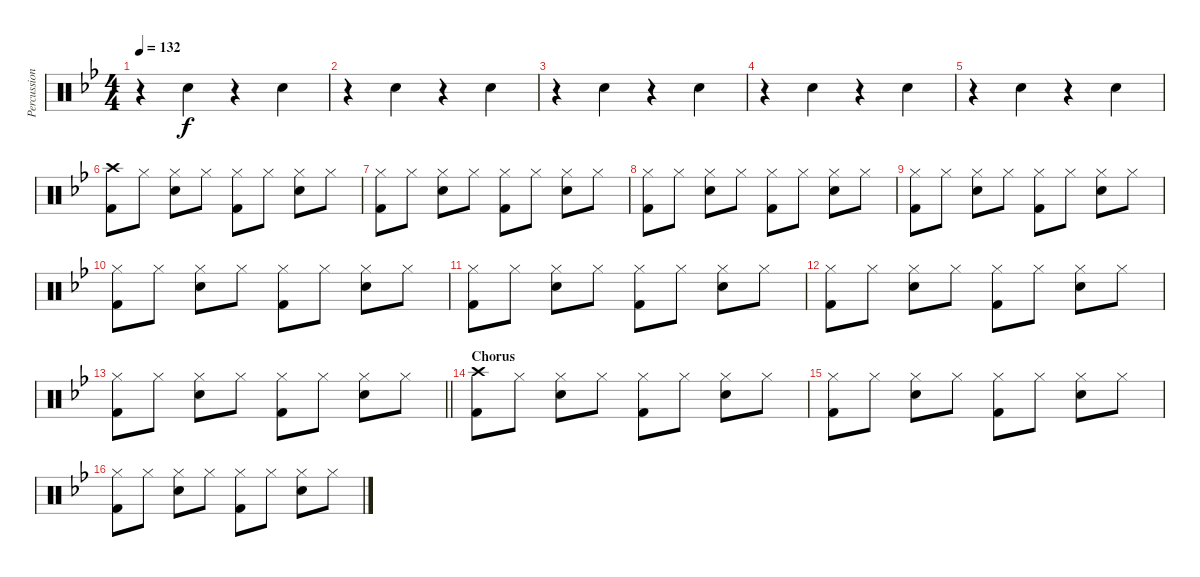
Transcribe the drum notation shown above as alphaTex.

\track ("Percussion" "Percussion") {instrument percussion}
\staff {score}
\articulation defaults
\ts (4 4)
\tempo 132
\clef neutral
\ks bb
r.4{dy f} "Snare (hit) 2".4 r.4 "Snare (hit) 2".4 |
r.4 "Snare (hit) 2".4 r.4 "Snare (hit) 2".4 |
r.4 "Snare (hit) 2".4 r.4 "Snare (hit) 2".4 |
r.4 "Snare (hit) 2".4 r.4 "Snare (hit) 2".4 |
r.4 "Snare (hit) 2".4 r.4 "Snare (hit) 2".4 |
("Crash high (hit)" "Kick (hit) 2").8 "Hi-Hat (closed)".8 ("Hi-Hat (closed)" "Snare (hit) 2").8 "Hi-Hat (closed)".8 ("Hi-Hat (closed)" "Kick (hit) 2").8 "Hi-Hat (closed)".8 ("Hi-Hat (closed)" "Snare (hit) 2").8 "Hi-Hat (closed)".8 |
("Hi-Hat (closed)" "Kick (hit) 2").8 "Hi-Hat (closed)".8 ("Hi-Hat (closed)" "Snare (hit) 2").8 "Hi-Hat (closed)".8 ("Hi-Hat (closed)" "Kick (hit) 2").8 "Hi-Hat (closed)".8 ("Hi-Hat (closed)" "Snare (hit) 2").8 "Hi-Hat (closed)".8 |
("Hi-Hat (closed)" "Kick (hit) 2").8 "Hi-Hat (closed)".8 ("Hi-Hat (closed)" "Snare (hit) 2").8 "Hi-Hat (closed)".8 ("Hi-Hat (closed)" "Kick (hit) 2").8 "Hi-Hat (closed)".8 ("Hi-Hat (closed)" "Snare (hit) 2").8 "Hi-Hat (closed)".8 |
("Hi-Hat (closed)" "Kick (hit) 2").8 "Hi-Hat (closed)".8 ("Hi-Hat (closed)" "Snare (hit) 2").8 "Hi-Hat (closed)".8 ("Hi-Hat (closed)" "Kick (hit) 2").8 "Hi-Hat (closed)".8 ("Hi-Hat (closed)" "Snare (hit) 2").8 "Hi-Hat (closed)".8 |
("Hi-Hat (closed)" "Kick (hit) 2").8 "Hi-Hat (closed)".8 ("Hi-Hat (closed)" "Snare (hit) 2").8 "Hi-Hat (closed)".8 ("Hi-Hat (closed)" "Kick (hit) 2").8 "Hi-Hat (closed)".8 ("Hi-Hat (closed)" "Snare (hit) 2").8 "Hi-Hat (closed)".8 |
("Hi-Hat (closed)" "Kick (hit) 2").8 "Hi-Hat (closed)".8 ("Hi-Hat (closed)" "Snare (hit) 2").8 "Hi-Hat (closed)".8 ("Hi-Hat (closed)" "Kick (hit) 2").8 "Hi-Hat (closed)".8 ("Hi-Hat (closed)" "Snare (hit) 2").8 "Hi-Hat (closed)".8 |
("Hi-Hat (closed)" "Kick (hit) 2").8 "Hi-Hat (closed)".8 ("Hi-Hat (closed)" "Snare (hit) 2").8 "Hi-Hat (closed)".8 ("Hi-Hat (closed)" "Kick (hit) 2").8 "Hi-Hat (closed)".8 ("Hi-Hat (closed)" "Snare (hit) 2").8 "Hi-Hat (closed)".8 |
\barLineRight lightlight
("Hi-Hat (closed)" "Kick (hit) 2").8 "Hi-Hat (closed)".8 ("Hi-Hat (closed)" "Snare (hit) 2").8 "Hi-Hat (closed)".8 ("Hi-Hat (closed)" "Kick (hit) 2").8 "Hi-Hat (closed)".8 ("Hi-Hat (closed)" "Snare (hit) 2").8 "Hi-Hat (closed)".8 |
\section ("" "Chorus")
("Crash high (hit)" "Kick (hit) 2").8 "Hi-Hat (closed)".8 ("Hi-Hat (closed)" "Snare (hit) 2").8 "Hi-Hat (closed)".8 ("Hi-Hat (closed)" "Kick (hit) 2").8 "Hi-Hat (closed)".8 ("Hi-Hat (closed)" "Snare (hit) 2").8 "Hi-Hat (closed)".8 |
("Hi-Hat (closed)" "Kick (hit) 2").8 "Hi-Hat (closed)".8 ("Hi-Hat (closed)" "Snare (hit) 2").8 "Hi-Hat (closed)".8 ("Hi-Hat (closed)" "Kick (hit) 2").8 "Hi-Hat (closed)".8 ("Hi-Hat (closed)" "Snare (hit) 2").8 "Hi-Hat (closed)".8 |
("Hi-Hat (closed)" "Kick (hit) 2").8 "Hi-Hat (closed)".8 ("Hi-Hat (closed)" "Snare (hit) 2").8 "Hi-Hat (closed)".8 ("Hi-Hat (closed)" "Kick (hit) 2").8 "Hi-Hat (closed)".8 ("Hi-Hat (closed)" "Snare (hit) 2").8 "Hi-Hat (closed)".8
